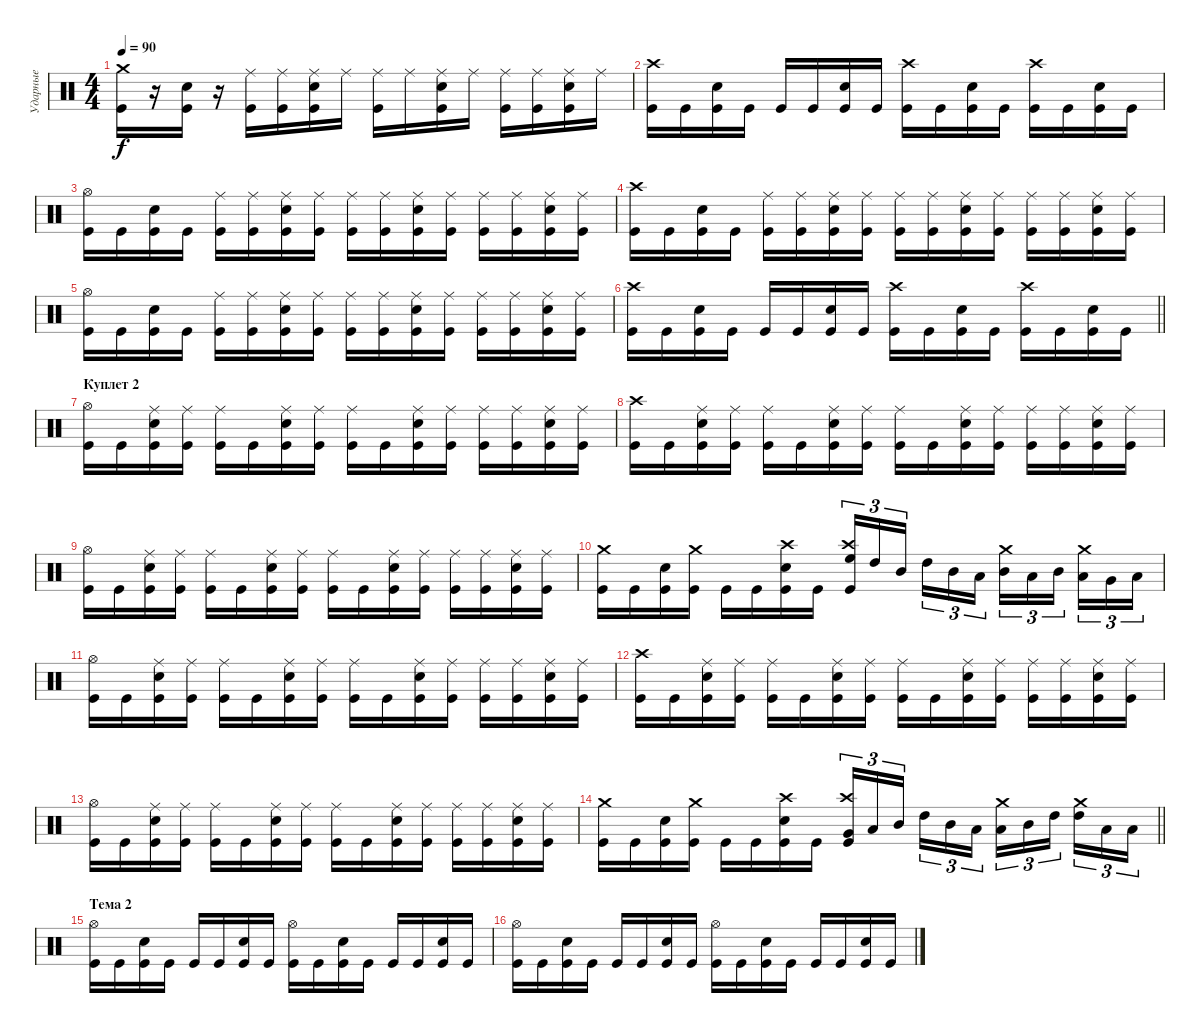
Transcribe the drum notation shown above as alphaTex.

\track ("Ударные" "Ударные") {instrument percussion}
\staff {score}
\articulation defaults
\ts (4 4)
\tempo 90
\clef neutral
\ks c
("Kick (hit)" "Crash medium (hit)").16{dy f} r.16 ("Kick (hit)" "Electric Snare (hit)").16 r.16 ("Kick (hit)" "Ride (middle)").16 ("Kick (hit)" "Ride (middle)").16 ("Kick (hit)" "Ride (middle)" "Electric Snare (hit)").16 "Ride (middle)".16 ("Kick (hit)" "Ride (middle)").16 "Ride (middle)".16 ("Kick (hit)" "Ride (middle)" "Electric Snare (hit)").16 "Ride (middle)".16 ("Kick (hit)" "Ride (middle)").16 ("Kick (hit)" "Ride (middle)").16 ("Kick (hit)" "Ride (middle)" "Electric Snare (hit)").16 "Ride (middle)".16 |
("Kick (hit)" "Crash high (hit)").16 "Kick (hit)".16 ("Kick (hit)" "Electric Snare (hit)").16 "Kick (hit)".16 "Kick (hit)".16 "Kick (hit)".16 ("Kick (hit)" "Electric Snare (hit)").16 "Kick (hit)".16 ("Kick (hit)" "Crash high (hit)").16 "Kick (hit)".16 ("Kick (hit)" "Electric Snare (hit)").16 "Kick (hit)".16 ("Kick (hit)" "Crash high (hit)").16 "Kick (hit)".16 ("Kick (hit)" "Electric Snare (hit)").16 "Kick (hit)".16 |
("Kick (hit)" "Hi-Hat (open)").16 "Kick (hit)".16 ("Kick (hit)" "Electric Snare (hit)").16 "Kick (hit)".16 ("Kick (hit)" "Ride (middle)").16 ("Kick (hit)" "Ride (middle)").16 ("Kick (hit)" "Ride (middle)" "Electric Snare (hit)").16 ("Kick (hit)" "Ride (middle)").16 ("Kick (hit)" "Ride (middle)").16 ("Kick (hit)" "Ride (middle)").16 ("Kick (hit)" "Ride (middle)" "Electric Snare (hit)").16 ("Kick (hit)" "Ride (middle)").16 ("Kick (hit)" "Ride (middle)").16 ("Kick (hit)" "Ride (middle)").16 ("Kick (hit)" "Ride (middle)" "Electric Snare (hit)").16 ("Kick (hit)" "Ride (middle)").16 |
("Kick (hit)" "Crash high (hit)").16 "Kick (hit)".16 ("Kick (hit)" "Electric Snare (hit)").16 "Kick (hit)".16 ("Kick (hit)" "Ride (middle)").16 ("Kick (hit)" "Ride (middle)").16 ("Kick (hit)" "Ride (middle)" "Electric Snare (hit)").16 ("Kick (hit)" "Ride (middle)").16 ("Kick (hit)" "Ride (middle)").16 ("Kick (hit)" "Ride (middle)").16 ("Kick (hit)" "Ride (middle)" "Electric Snare (hit)").16 ("Kick (hit)" "Ride (middle)").16 ("Kick (hit)" "Ride (middle)").16 ("Kick (hit)" "Ride (middle)").16 ("Kick (hit)" "Ride (middle)" "Electric Snare (hit)").16 ("Kick (hit)" "Ride (middle)").16 |
("Kick (hit)" "Hi-Hat (open)").16 "Kick (hit)".16 ("Kick (hit)" "Electric Snare (hit)").16 "Kick (hit)".16 ("Kick (hit)" "Ride (middle)").16 ("Kick (hit)" "Ride (middle)").16 ("Kick (hit)" "Ride (middle)" "Electric Snare (hit)").16 ("Kick (hit)" "Ride (middle)").16 ("Kick (hit)" "Ride (middle)").16 ("Kick (hit)" "Ride (middle)").16 ("Kick (hit)" "Ride (middle)" "Electric Snare (hit)").16 ("Kick (hit)" "Ride (middle)").16 ("Kick (hit)" "Ride (middle)").16 ("Kick (hit)" "Ride (middle)").16 ("Kick (hit)" "Ride (middle)" "Electric Snare (hit)").16 ("Kick (hit)" "Ride (middle)").16 |
\barLineRight lightlight
("Kick (hit)" "Crash high (hit)").16 "Kick (hit)".16 ("Kick (hit)" "Electric Snare (hit)").16 "Kick (hit)".16 "Kick (hit)".16 "Kick (hit)".16 ("Kick (hit)" "Electric Snare (hit)").16 "Kick (hit)".16 ("Kick (hit)" "Crash high (hit)").16 "Kick (hit)".16 ("Kick (hit)" "Electric Snare (hit)").16 "Kick (hit)".16 ("Kick (hit)" "Crash high (hit)").16 "Kick (hit)".16 ("Kick (hit)" "Electric Snare (hit)").16 "Kick (hit)".16 |
\section ("" "Куплет 2")
("Kick (hit)" "Hi-Hat (open)").16 "Kick (hit)".16 ("Kick (hit)" "Electric Snare (hit)" "Ride (middle)").16 ("Kick (hit)" "Ride (middle)").16 ("Kick (hit)" "Ride (middle)").16 "Kick (hit)".16 ("Kick (hit)" "Ride (middle)" "Electric Snare (hit)").16 ("Kick (hit)" "Ride (middle)").16 ("Kick (hit)" "Ride (middle)").16 "Kick (hit)".16 ("Kick (hit)" "Ride (middle)" "Electric Snare (hit)").16 ("Kick (hit)" "Ride (middle)").16 ("Kick (hit)" "Ride (middle)").16 ("Kick (hit)" "Ride (middle)").16 ("Kick (hit)" "Ride (middle)" "Electric Snare (hit)").16 ("Kick (hit)" "Ride (middle)").16 |
("Kick (hit)" "Crash high (hit)").16 "Kick (hit)".16 ("Kick (hit)" "Electric Snare (hit)" "Ride (middle)").16 ("Kick (hit)" "Ride (middle)").16 ("Kick (hit)" "Ride (middle)").16 "Kick (hit)".16 ("Kick (hit)" "Ride (middle)" "Electric Snare (hit)").16 ("Kick (hit)" "Ride (middle)").16 ("Kick (hit)" "Ride (middle)").16 "Kick (hit)".16 ("Kick (hit)" "Ride (middle)" "Electric Snare (hit)").16 ("Kick (hit)" "Ride (middle)").16 ("Kick (hit)" "Ride (middle)").16 ("Kick (hit)" "Ride (middle)").16 ("Kick (hit)" "Ride (middle)" "Electric Snare (hit)").16 ("Kick (hit)" "Ride (middle)").16 |
("Kick (hit)" "Hi-Hat (open)").16 "Kick (hit)".16 ("Kick (hit)" "Electric Snare (hit)" "Ride (middle)").16 ("Kick (hit)" "Ride (middle)").16 ("Kick (hit)" "Ride (middle)").16 "Kick (hit)".16 ("Kick (hit)" "Ride (middle)" "Electric Snare (hit)").16 ("Kick (hit)" "Ride (middle)").16 ("Kick (hit)" "Ride (middle)").16 "Kick (hit)".16 ("Kick (hit)" "Ride (middle)" "Electric Snare (hit)").16 ("Kick (hit)" "Ride (middle)").16 ("Kick (hit)" "Ride (middle)").16 ("Kick (hit)" "Ride (middle)").16 ("Kick (hit)" "Ride (middle)" "Electric Snare (hit)").16 ("Kick (hit)" "Ride (middle)").16 |
("Kick (hit)" "Crash medium (hit)").16 "Kick (hit)".16 ("Kick (hit)" "Electric Snare (hit)").16 ("Kick (hit)" "Crash medium (hit)").16 "Kick (hit)".16 "Kick (hit)".16 ("Kick (hit)" "Crash high (hit)" "Electric Snare (hit)").16 "Kick (hit)".16 ("Kick (hit)" "Crash high (hit)" "High Floor Tom (hit)").16{tu (3 2)} "High Tom (hit)".16{tu (3 2)} "Mid Tom (hit)".16{tu (3 2) beam splitsecondary} "High Tom (hit)".16{tu (3 2)} "Mid Tom (hit)".16{tu (3 2)} "Low Tom (hit)".16{tu (3 2)} ("Mid Tom (hit)" "Crash medium (hit)").16{tu (3 2)} "Low Tom (hit)".16{tu (3 2)} "Mid Tom (hit)".16{tu (3 2) beam splitsecondary} ("Low Tom (hit)" "Crash medium (hit)").16{tu (3 2)} "Very Low Tom (hit)".16{tu (3 2)} "Low Floor Tom (hit)".16{tu (3 2)} |
("Kick (hit)" "Hi-Hat (open)").16 "Kick (hit)".16 ("Kick (hit)" "Electric Snare (hit)" "Ride (middle)").16 ("Kick (hit)" "Ride (middle)").16 ("Kick (hit)" "Ride (middle)").16 "Kick (hit)".16 ("Kick (hit)" "Ride (middle)" "Electric Snare (hit)").16 ("Kick (hit)" "Ride (middle)").16 ("Kick (hit)" "Ride (middle)").16 "Kick (hit)".16 ("Kick (hit)" "Ride (middle)" "Electric Snare (hit)").16 ("Kick (hit)" "Ride (middle)").16 ("Kick (hit)" "Ride (middle)").16 ("Kick (hit)" "Ride (middle)").16 ("Kick (hit)" "Ride (middle)" "Electric Snare (hit)").16 ("Kick (hit)" "Ride (middle)").16 |
("Kick (hit)" "Crash high (hit)").16 "Kick (hit)".16 ("Kick (hit)" "Electric Snare (hit)" "Ride (middle)").16 ("Kick (hit)" "Ride (middle)").16 ("Kick (hit)" "Ride (middle)").16 "Kick (hit)".16 ("Kick (hit)" "Ride (middle)" "Electric Snare (hit)").16 ("Kick (hit)" "Ride (middle)").16 ("Kick (hit)" "Ride (middle)").16 "Kick (hit)".16 ("Kick (hit)" "Ride (middle)" "Electric Snare (hit)").16 ("Kick (hit)" "Ride (middle)").16 ("Kick (hit)" "Ride (middle)").16 ("Kick (hit)" "Ride (middle)").16 ("Kick (hit)" "Ride (middle)" "Electric Snare (hit)").16 ("Kick (hit)" "Ride (middle)").16 |
("Kick (hit)" "Hi-Hat (open)").16 "Kick (hit)".16 ("Kick (hit)" "Electric Snare (hit)" "Ride (middle)").16 ("Kick (hit)" "Ride (middle)").16 ("Kick (hit)" "Ride (middle)").16 "Kick (hit)".16 ("Kick (hit)" "Ride (middle)" "Electric Snare (hit)").16 ("Kick (hit)" "Ride (middle)").16 ("Kick (hit)" "Ride (middle)").16 "Kick (hit)".16 ("Kick (hit)" "Ride (middle)" "Electric Snare (hit)").16 ("Kick (hit)" "Ride (middle)").16 ("Kick (hit)" "Ride (middle)").16 ("Kick (hit)" "Ride (middle)").16 ("Kick (hit)" "Ride (middle)" "Electric Snare (hit)").16 ("Kick (hit)" "Ride (middle)").16 |
\barLineRight lightlight
("Kick (hit)" "Crash medium (hit)").16 "Kick (hit)".16 ("Kick (hit)" "Electric Snare (hit)").16 ("Kick (hit)" "Crash medium (hit)").16 "Kick (hit)".16 "Kick (hit)".16 ("Kick (hit)" "Crash high (hit)" "Electric Snare (hit)").16 "Kick (hit)".16 ("Kick (hit)" "Crash high (hit)" "Very Low Tom (hit)").16{tu (3 2)} "Low Tom (hit)".16{tu (3 2)} "Mid Tom (hit)".16{tu (3 2) beam splitsecondary} "High Tom (hit)".16{tu (3 2)} "Mid Tom (hit)".16{tu (3 2)} "Low Tom (hit)".16{tu (3 2)} ("Crash medium (hit)" "Low Tom (hit)").16{tu (3 2)} "Mid Tom (hit)".16{tu (3 2)} "High Tom (hit)".16{tu (3 2) beam splitsecondary} ("High Tom (hit)" "Crash medium (hit)").16{tu (3 2)} "Low Tom (hit)".16{tu (3 2)} "Low Floor Tom (hit)".16{tu (3 2)} |
\section ("" "Тема 2")
("Kick (hit)" "Hi-Hat (open)").16 "Kick (hit)".16 ("Kick (hit)" "Electric Snare (hit)").16 "Kick (hit)".16 "Kick (hit)".16 "Kick (hit)".16 ("Kick (hit)" "Electric Snare (hit)").16 "Kick (hit)".16 ("Kick (hit)" "Hi-Hat (open)").16 "Kick (hit)".16 ("Kick (hit)" "Electric Snare (hit)").16 "Kick (hit)".16 "Kick (hit)".16 "Kick (hit)".16 ("Kick (hit)" "Electric Snare (hit)").16 "Kick (hit)".16 |
("Kick (hit)" "Hi-Hat (open)").16 "Kick (hit)".16 ("Kick (hit)" "Electric Snare (hit)").16 "Kick (hit)".16 "Kick (hit)".16 "Kick (hit)".16 ("Kick (hit)" "Electric Snare (hit)").16 "Kick (hit)".16 ("Kick (hit)" "Hi-Hat (open)").16 "Kick (hit)".16 ("Kick (hit)" "Electric Snare (hit)").16 "Kick (hit)".16 "Kick (hit)".16 "Kick (hit)".16 ("Kick (hit)" "Electric Snare (hit)").16 "Kick (hit)".16
